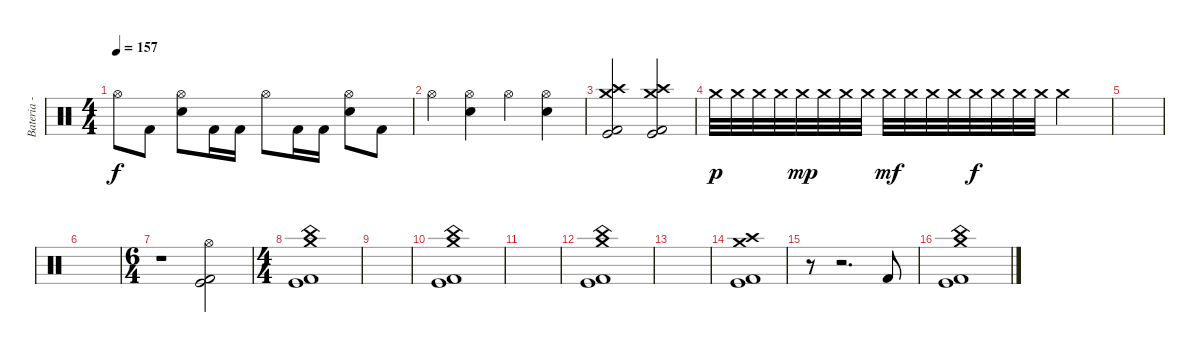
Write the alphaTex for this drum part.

\track ("Bateria - Optional" "Bateria - ") {instrument percussion}
\staff {score}
\articulation defaults
\ts (4 4)
\tempo 157
\clef neutral
\ks c "Hi-Hat (open)".8{dy f} "Kick (hit) 2".8
("Hi-Hat (open)" "Electric Snare (hit)").8 "Kick (hit) 2".16 "Kick (hit) 2".16 "Hi-Hat (open)".8 "Kick (hit) 2".16 "Kick (hit) 2".16 ("Hi-Hat (open)" "Electric Snare (hit)").8 "Kick (hit) 2".8 |
"Hi-Hat (open)".4 ("Hi-Hat (open)" "Electric Snare (hit)").4 "Hi-Hat (open)".4 ("Hi-Hat (open)" "Electric Snare (hit)").4 |
("Crash medium (hit)" "Crash high (hit)" "Kick (hit)" "Kick (hit) 2").2 ("Crash medium (hit)" "Crash high (hit)" "Kick (hit)" "Kick (hit) 2").2 |
"Crash medium (hit)".32{dy p} "Crash medium (hit)".32 "Crash medium (hit)".32 "Crash medium (hit)".32 "Crash medium (hit)".32{dy mp} "Crash medium (hit)".32 "Crash medium (hit)".32 "Crash medium (hit)".32 "Crash medium (hit)".32{dy mf} "Crash medium (hit)".32 "Crash medium (hit)".32 "Crash medium (hit)".32 "Crash medium (hit)".32{dy f} "Crash medium (hit)".32 "Crash medium (hit)".32 "Crash medium (hit)".32 "Crash medium (hit)".2 |
|
|
\ts (6 4)
r.1 ("Hi-Hat (open)" "Kick (hit)" "Kick (hit) 2").2 |
\ts (4 4)
("China (hit)" "Crash medium (hit)" "Kick (hit)" "Kick (hit) 2").1 |
|
("China (hit)" "Crash medium (hit)" "Kick (hit)" "Kick (hit) 2").1 |
|
("China (hit)" "Crash medium (hit)" "Kick (hit)" "Kick (hit) 2").1 |
|
("Crash medium (hit)" "Crash high (hit)" "Kick (hit)" "Kick (hit) 2").1 |
r.8 r.2{d} "Kick (hit) 2".8 |
("China (hit)" "Crash medium (hit)" "Kick (hit)" "Kick (hit) 2").1
